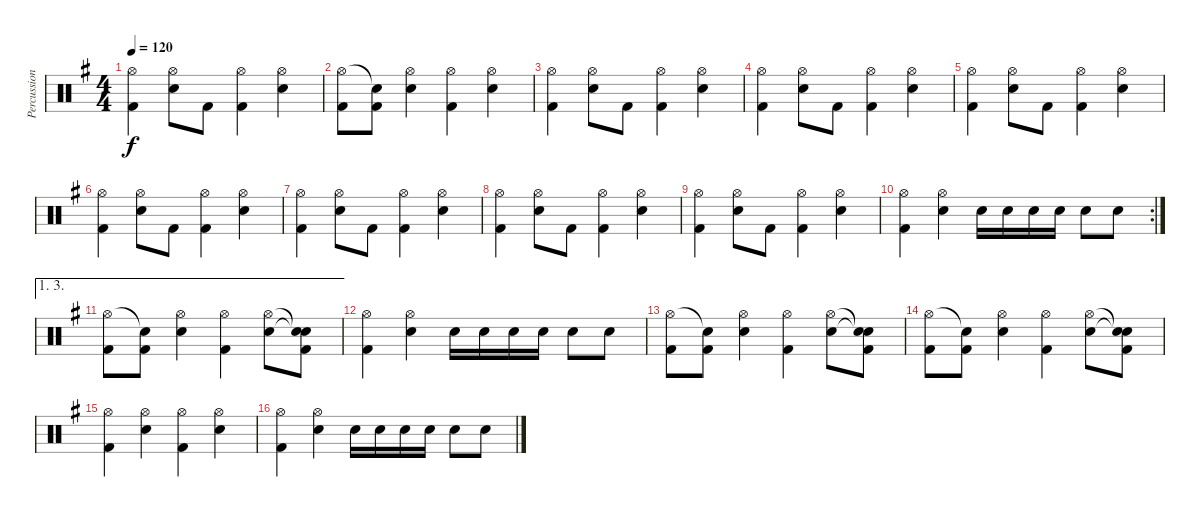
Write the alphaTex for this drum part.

\track ("Percussion" "Percussion") {instrument percussion}
\staff {score}
\articulation defaults
\ts (4 4)
\tempo 120
\clef neutral
\ks g
("Hi-Hat (open)" "Kick (hit) 2").4{dy f} ("Hi-Hat (open)" "Snare (hit) 2").8 "Kick (hit) 2".8 ("Hi-Hat (open)" "Kick (hit) 2").4 ("Hi-Hat (open)" "Snare (hit) 2").4 |
("Hi-Hat (open)" "Kick (hit) 2").8 ("Snare (hit)"{t} "Kick (hit) 2").8 ("Hi-Hat (open)" "Snare (hit) 2").4 ("Hi-Hat (open)" "Kick (hit) 2").4 ("Hi-Hat (open)" "Snare (hit) 2").4 |
("Hi-Hat (open)" "Kick (hit) 2").4 ("Hi-Hat (open)" "Snare (hit) 2").8 "Kick (hit) 2".8 ("Hi-Hat (open)" "Kick (hit) 2").4 ("Hi-Hat (open)" "Snare (hit) 2").4 |
("Hi-Hat (open)" "Kick (hit) 2").4 ("Hi-Hat (open)" "Snare (hit) 2").8 "Kick (hit) 2".8 ("Hi-Hat (open)" "Kick (hit) 2").4 ("Hi-Hat (open)" "Snare (hit) 2").4 |
("Hi-Hat (open)" "Kick (hit) 2").4 ("Hi-Hat (open)" "Snare (hit) 2").8 "Kick (hit) 2".8 ("Hi-Hat (open)" "Kick (hit) 2").4 ("Hi-Hat (open)" "Snare (hit) 2").4 |
("Hi-Hat (open)" "Kick (hit) 2").4 ("Hi-Hat (open)" "Snare (hit) 2").8 "Kick (hit) 2".8 ("Hi-Hat (open)" "Kick (hit) 2").4 ("Hi-Hat (open)" "Snare (hit) 2").4 |
("Hi-Hat (open)" "Kick (hit) 2").4 ("Hi-Hat (open)" "Snare (hit) 2").8 "Kick (hit) 2".8 ("Hi-Hat (open)" "Kick (hit) 2").4 ("Hi-Hat (open)" "Snare (hit) 2").4 |
("Hi-Hat (open)" "Kick (hit) 2").4 ("Hi-Hat (open)" "Snare (hit) 2").8 "Kick (hit) 2".8 ("Hi-Hat (open)" "Kick (hit) 2").4 ("Hi-Hat (open)" "Snare (hit) 2").4 |
("Hi-Hat (open)" "Kick (hit) 2").4 ("Hi-Hat (open)" "Snare (hit) 2").8 "Kick (hit) 2".8 ("Hi-Hat (open)" "Kick (hit) 2").4 ("Hi-Hat (open)" "Snare (hit) 2").4 |
\rc 2
("Hi-Hat (open)" "Kick (hit) 2").4 ("Hi-Hat (open)" "Snare (hit) 2").4 "Snare (hit) 2".16 "Snare (hit) 2".16 "Snare (hit) 2".16 "Snare (hit) 2".16 "Snare (hit) 2".8 "Snare (hit) 2".8 |
\ae (1 3)
("Hi-Hat (open)" "Kick (hit) 2").8 ("Snare (hit)"{t} "Kick (hit) 2").8 ("Hi-Hat (open)" "Snare (hit) 2").4 ("Hi-Hat (open)" "Kick (hit) 2").4 ("Hi-Hat (open)" "Snare (hit) 2").8 ("Snare (hit)"{t} "Snare (hit)"{t} "Kick (hit) 2").8 |
("Hi-Hat (open)" "Kick (hit) 2").4 ("Hi-Hat (open)" "Snare (hit) 2").4 "Snare (hit) 2".16 "Snare (hit) 2".16 "Snare (hit) 2".16 "Snare (hit) 2".16 "Snare (hit) 2".8 "Snare (hit) 2".8 |
("Hi-Hat (open)" "Kick (hit) 2").8 ("Snare (hit)"{t} "Kick (hit) 2").8 ("Hi-Hat (open)" "Snare (hit) 2").4 ("Hi-Hat (open)" "Kick (hit) 2").4 ("Hi-Hat (open)" "Snare (hit) 2").8 ("Snare (hit)"{t} "Snare (hit)"{t} "Kick (hit) 2").8 |
("Hi-Hat (open)" "Kick (hit) 2").8 ("Snare (hit)"{t} "Kick (hit) 2").8 ("Hi-Hat (open)" "Snare (hit) 2").4 ("Hi-Hat (open)" "Kick (hit) 2").4 ("Hi-Hat (open)" "Snare (hit) 2").8 ("Snare (hit)"{t} "Snare (hit)"{t} "Kick (hit) 2").8 |
("Hi-Hat (open)" "Kick (hit) 2").4 ("Hi-Hat (open)" "Snare (hit) 2").4 ("Hi-Hat (open)" "Kick (hit) 2").4 ("Hi-Hat (open)" "Snare (hit) 2").4 |
("Hi-Hat (open)" "Kick (hit) 2").4 ("Hi-Hat (open)" "Snare (hit) 2").4 "Snare (hit) 2".16 "Snare (hit) 2".16 "Snare (hit) 2".16 "Snare (hit) 2".16 "Snare (hit) 2".8 "Snare (hit) 2".8
